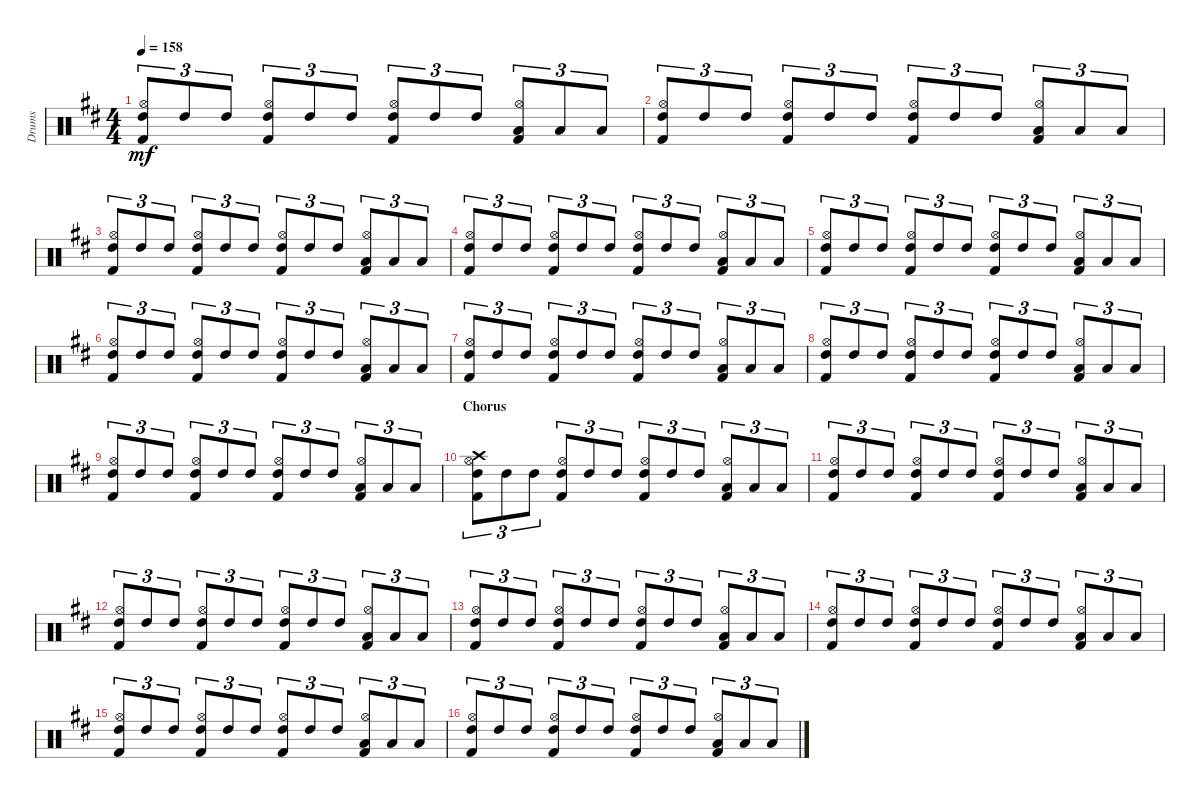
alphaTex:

\track ("Drums" "Drums") {instrument percussion}
\staff {score}
\articulation defaults
\ts (4 4)
\tempo 158
\clef neutral
\ks d
("Kick (hit) 2" "Hi-Hat (open)" "High Tom (hit)").8{tu (3 2) dy mf} "High Tom (hit)".8{tu (3 2)} "High Tom (hit)".8{tu (3 2)} ("Kick (hit) 2" "Hi-Hat (open)" "High Tom (hit)").8{tu (3 2)} "High Tom (hit)".8{tu (3 2)} "High Tom (hit)".8{tu (3 2)} ("Kick (hit) 2" "Hi-Hat (open)" "High Tom (hit)").8{tu (3 2)} "High Tom (hit)".8{tu (3 2)} "High Tom (hit)".8{tu (3 2)} ("Kick (hit) 2" "Hi-Hat (open)" "Low Tom (hit)").8{tu (3 2)} "Low Tom (hit)".8{tu (3 2)} "Low Tom (hit)".8{tu (3 2)} |
("Kick (hit) 2" "Hi-Hat (open)" "High Tom (hit)").8{tu (3 2)} "High Tom (hit)".8{tu (3 2)} "High Tom (hit)".8{tu (3 2)} ("Kick (hit) 2" "Hi-Hat (open)" "High Tom (hit)").8{tu (3 2)} "High Tom (hit)".8{tu (3 2)} "High Tom (hit)".8{tu (3 2)} ("Kick (hit) 2" "Hi-Hat (open)" "High Tom (hit)").8{tu (3 2)} "High Tom (hit)".8{tu (3 2)} "High Tom (hit)".8{tu (3 2)} ("Kick (hit) 2" "Hi-Hat (open)" "Low Tom (hit)").8{tu (3 2)} "Low Tom (hit)".8{tu (3 2)} "Low Tom (hit)".8{tu (3 2)} |
("Kick (hit) 2" "Hi-Hat (open)" "High Tom (hit)").8{tu (3 2)} "High Tom (hit)".8{tu (3 2)} "High Tom (hit)".8{tu (3 2)} ("Kick (hit) 2" "Hi-Hat (open)" "High Tom (hit)").8{tu (3 2)} "High Tom (hit)".8{tu (3 2)} "High Tom (hit)".8{tu (3 2)} ("Kick (hit) 2" "Hi-Hat (open)" "High Tom (hit)").8{tu (3 2)} "High Tom (hit)".8{tu (3 2)} "High Tom (hit)".8{tu (3 2)} ("Kick (hit) 2" "Hi-Hat (open)" "Low Tom (hit)").8{tu (3 2)} "Low Tom (hit)".8{tu (3 2)} "Low Tom (hit)".8{tu (3 2)} |
("Kick (hit) 2" "Hi-Hat (open)" "High Tom (hit)").8{tu (3 2)} "High Tom (hit)".8{tu (3 2)} "High Tom (hit)".8{tu (3 2)} ("Kick (hit) 2" "Hi-Hat (open)" "High Tom (hit)").8{tu (3 2)} "High Tom (hit)".8{tu (3 2)} "High Tom (hit)".8{tu (3 2)} ("Kick (hit) 2" "Hi-Hat (open)" "High Tom (hit)").8{tu (3 2)} "High Tom (hit)".8{tu (3 2)} "High Tom (hit)".8{tu (3 2)} ("Kick (hit) 2" "Hi-Hat (open)" "Low Tom (hit)").8{tu (3 2)} "Low Tom (hit)".8{tu (3 2)} "Low Tom (hit)".8{tu (3 2)} |
("Kick (hit) 2" "Hi-Hat (open)" "High Tom (hit)").8{tu (3 2)} "High Tom (hit)".8{tu (3 2)} "High Tom (hit)".8{tu (3 2)} ("Kick (hit) 2" "Hi-Hat (open)" "High Tom (hit)").8{tu (3 2)} "High Tom (hit)".8{tu (3 2)} "High Tom (hit)".8{tu (3 2)} ("Kick (hit) 2" "Hi-Hat (open)" "High Tom (hit)").8{tu (3 2)} "High Tom (hit)".8{tu (3 2)} "High Tom (hit)".8{tu (3 2)} ("Kick (hit) 2" "Hi-Hat (open)" "Low Tom (hit)").8{tu (3 2)} "Low Tom (hit)".8{tu (3 2)} "Low Tom (hit)".8{tu (3 2)} |
("Kick (hit) 2" "Hi-Hat (open)" "High Tom (hit)").8{tu (3 2)} "High Tom (hit)".8{tu (3 2)} "High Tom (hit)".8{tu (3 2)} ("Kick (hit) 2" "Hi-Hat (open)" "High Tom (hit)").8{tu (3 2)} "High Tom (hit)".8{tu (3 2)} "High Tom (hit)".8{tu (3 2)} ("Kick (hit) 2" "Hi-Hat (open)" "High Tom (hit)").8{tu (3 2)} "High Tom (hit)".8{tu (3 2)} "High Tom (hit)".8{tu (3 2)} ("Kick (hit) 2" "Hi-Hat (open)" "Low Tom (hit)").8{tu (3 2)} "Low Tom (hit)".8{tu (3 2)} "Low Tom (hit)".8{tu (3 2)} |
("Kick (hit) 2" "Hi-Hat (open)" "High Tom (hit)").8{tu (3 2)} "High Tom (hit)".8{tu (3 2)} "High Tom (hit)".8{tu (3 2)} ("Kick (hit) 2" "Hi-Hat (open)" "High Tom (hit)").8{tu (3 2)} "High Tom (hit)".8{tu (3 2)} "High Tom (hit)".8{tu (3 2)} ("Kick (hit) 2" "Hi-Hat (open)" "High Tom (hit)").8{tu (3 2)} "High Tom (hit)".8{tu (3 2)} "High Tom (hit)".8{tu (3 2)} ("Kick (hit) 2" "Hi-Hat (open)" "Low Tom (hit)").8{tu (3 2)} "Low Tom (hit)".8{tu (3 2)} "Low Tom (hit)".8{tu (3 2)} |
("Kick (hit) 2" "Hi-Hat (open)" "High Tom (hit)").8{tu (3 2)} "High Tom (hit)".8{tu (3 2)} "High Tom (hit)".8{tu (3 2)} ("Kick (hit) 2" "Hi-Hat (open)" "High Tom (hit)").8{tu (3 2)} "High Tom (hit)".8{tu (3 2)} "High Tom (hit)".8{tu (3 2)} ("Kick (hit) 2" "Hi-Hat (open)" "High Tom (hit)").8{tu (3 2)} "High Tom (hit)".8{tu (3 2)} "High Tom (hit)".8{tu (3 2)} ("Kick (hit) 2" "Hi-Hat (open)" "Low Tom (hit)").8{tu (3 2)} "Low Tom (hit)".8{tu (3 2)} "Low Tom (hit)".8{tu (3 2)} |
("Kick (hit) 2" "Hi-Hat (open)" "High Tom (hit)").8{tu (3 2)} "High Tom (hit)".8{tu (3 2)} "High Tom (hit)".8{tu (3 2)} ("Kick (hit) 2" "Hi-Hat (open)" "High Tom (hit)").8{tu (3 2)} "High Tom (hit)".8{tu (3 2)} "High Tom (hit)".8{tu (3 2)} ("Kick (hit) 2" "Hi-Hat (open)" "High Tom (hit)").8{tu (3 2)} "High Tom (hit)".8{tu (3 2)} "High Tom (hit)".8{tu (3 2)} ("Kick (hit) 2" "Hi-Hat (open)" "Low Tom (hit)").8{tu (3 2)} "Low Tom (hit)".8{tu (3 2)} "Low Tom (hit)".8{tu (3 2)} |
\section ("" "Chorus")
("Kick (hit) 2" "Hi-Hat (open)" "High Tom (hit)" "Crash high (hit)").8{tu (3 2)} "High Tom (hit)".8{tu (3 2)} "High Tom (hit)".8{tu (3 2)} ("Kick (hit) 2" "Hi-Hat (open)" "High Tom (hit)").8{tu (3 2)} "High Tom (hit)".8{tu (3 2)} "High Tom (hit)".8{tu (3 2)} ("Kick (hit) 2" "Hi-Hat (open)" "High Tom (hit)").8{tu (3 2)} "High Tom (hit)".8{tu (3 2)} "High Tom (hit)".8{tu (3 2)} ("Kick (hit) 2" "Hi-Hat (open)" "Low Tom (hit)").8{tu (3 2)} "Low Tom (hit)".8{tu (3 2)} "Low Tom (hit)".8{tu (3 2)} |
("Kick (hit) 2" "Hi-Hat (open)" "High Tom (hit)").8{tu (3 2)} "High Tom (hit)".8{tu (3 2)} "High Tom (hit)".8{tu (3 2)} ("Kick (hit) 2" "Hi-Hat (open)" "High Tom (hit)").8{tu (3 2)} "High Tom (hit)".8{tu (3 2)} "High Tom (hit)".8{tu (3 2)} ("Kick (hit) 2" "Hi-Hat (open)" "High Tom (hit)").8{tu (3 2)} "High Tom (hit)".8{tu (3 2)} "High Tom (hit)".8{tu (3 2)} ("Kick (hit) 2" "Hi-Hat (open)" "Low Tom (hit)").8{tu (3 2)} "Low Tom (hit)".8{tu (3 2)} "Low Tom (hit)".8{tu (3 2)} |
("Kick (hit) 2" "Hi-Hat (open)" "High Tom (hit)").8{tu (3 2)} "High Tom (hit)".8{tu (3 2)} "High Tom (hit)".8{tu (3 2)} ("Kick (hit) 2" "Hi-Hat (open)" "High Tom (hit)").8{tu (3 2)} "High Tom (hit)".8{tu (3 2)} "High Tom (hit)".8{tu (3 2)} ("Kick (hit) 2" "Hi-Hat (open)" "High Tom (hit)").8{tu (3 2)} "High Tom (hit)".8{tu (3 2)} "High Tom (hit)".8{tu (3 2)} ("Kick (hit) 2" "Hi-Hat (open)" "Low Tom (hit)").8{tu (3 2)} "Low Tom (hit)".8{tu (3 2)} "Low Tom (hit)".8{tu (3 2)} |
("Kick (hit) 2" "Hi-Hat (open)" "High Tom (hit)").8{tu (3 2)} "High Tom (hit)".8{tu (3 2)} "High Tom (hit)".8{tu (3 2)} ("Kick (hit) 2" "Hi-Hat (open)" "High Tom (hit)").8{tu (3 2)} "High Tom (hit)".8{tu (3 2)} "High Tom (hit)".8{tu (3 2)} ("Kick (hit) 2" "Hi-Hat (open)" "High Tom (hit)").8{tu (3 2)} "High Tom (hit)".8{tu (3 2)} "High Tom (hit)".8{tu (3 2)} ("Kick (hit) 2" "Hi-Hat (open)" "Low Tom (hit)").8{tu (3 2)} "Low Tom (hit)".8{tu (3 2)} "Low Tom (hit)".8{tu (3 2)} |
("Kick (hit) 2" "Hi-Hat (open)" "High Tom (hit)").8{tu (3 2)} "High Tom (hit)".8{tu (3 2)} "High Tom (hit)".8{tu (3 2)} ("Kick (hit) 2" "Hi-Hat (open)" "High Tom (hit)").8{tu (3 2)} "High Tom (hit)".8{tu (3 2)} "High Tom (hit)".8{tu (3 2)} ("Kick (hit) 2" "Hi-Hat (open)" "High Tom (hit)").8{tu (3 2)} "High Tom (hit)".8{tu (3 2)} "High Tom (hit)".8{tu (3 2)} ("Kick (hit) 2" "Hi-Hat (open)" "Low Tom (hit)").8{tu (3 2)} "Low Tom (hit)".8{tu (3 2)} "Low Tom (hit)".8{tu (3 2)} |
("Kick (hit) 2" "Hi-Hat (open)" "High Tom (hit)").8{tu (3 2)} "High Tom (hit)".8{tu (3 2)} "High Tom (hit)".8{tu (3 2)} ("Kick (hit) 2" "Hi-Hat (open)" "High Tom (hit)").8{tu (3 2)} "High Tom (hit)".8{tu (3 2)} "High Tom (hit)".8{tu (3 2)} ("Kick (hit) 2" "Hi-Hat (open)" "High Tom (hit)").8{tu (3 2)} "High Tom (hit)".8{tu (3 2)} "High Tom (hit)".8{tu (3 2)} ("Kick (hit) 2" "Hi-Hat (open)" "Low Tom (hit)").8{tu (3 2)} "Low Tom (hit)".8{tu (3 2)} "Low Tom (hit)".8{tu (3 2)} |
("Kick (hit) 2" "Hi-Hat (open)" "High Tom (hit)").8{tu (3 2)} "High Tom (hit)".8{tu (3 2)} "High Tom (hit)".8{tu (3 2)} ("Kick (hit) 2" "Hi-Hat (open)" "High Tom (hit)").8{tu (3 2)} "High Tom (hit)".8{tu (3 2)} "High Tom (hit)".8{tu (3 2)} ("Kick (hit) 2" "Hi-Hat (open)" "High Tom (hit)").8{tu (3 2)} "High Tom (hit)".8{tu (3 2)} "High Tom (hit)".8{tu (3 2)} ("Kick (hit) 2" "Hi-Hat (open)" "Low Tom (hit)").8{tu (3 2)} "Low Tom (hit)".8{tu (3 2)} "Low Tom (hit)".8{tu (3 2)}
